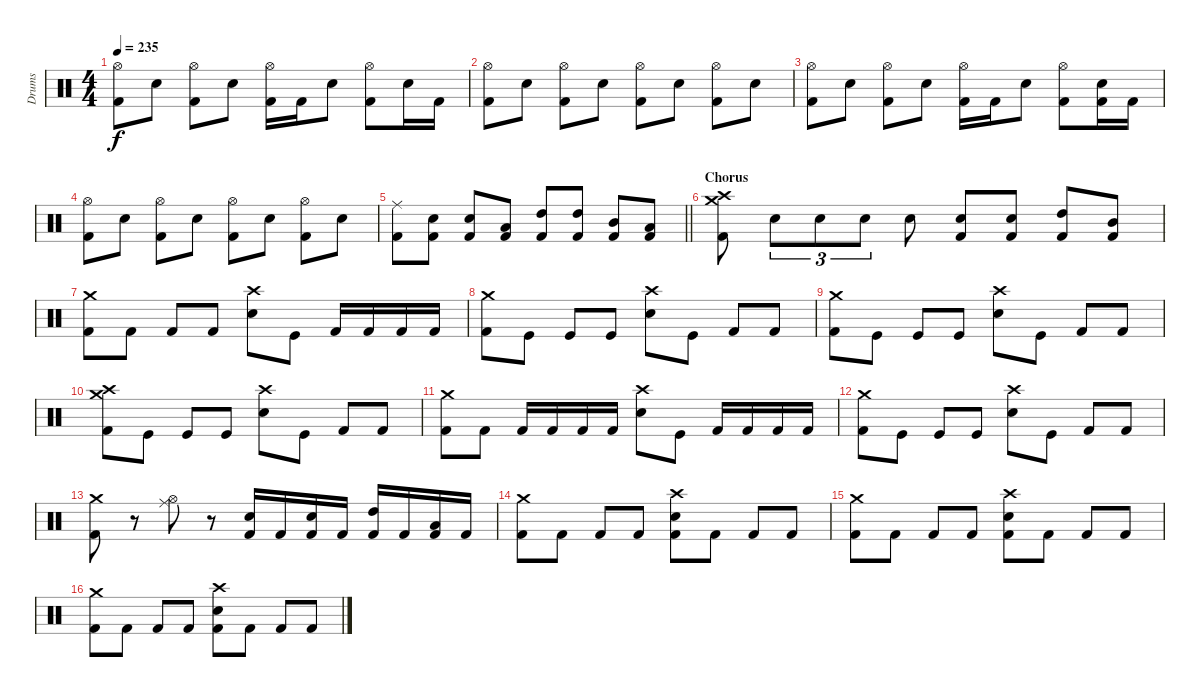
\track ("Drums" "Drums") {instrument percussion}
\staff {score}
\articulation defaults
\ts (4 4)
\tempo 235
\clef neutral
\ks c
("Hi-Hat (open)" "Kick (hit) 2").8{dy f} "Snare (hit) 2".8 ("Hi-Hat (open)" "Kick (hit) 2").8 "Snare (hit) 2".8 ("Hi-Hat (open)" "Kick (hit) 2").16 "Kick (hit) 2".16 "Snare (hit) 2".8 ("Hi-Hat (open)" "Kick (hit) 2").8 "Snare (hit) 2".16 "Kick (hit) 2".16 |
("Hi-Hat (open)" "Kick (hit) 2").8 "Snare (hit) 2".8 ("Hi-Hat (open)" "Kick (hit) 2").8 "Snare (hit) 2".8 ("Hi-Hat (open)" "Kick (hit) 2").8 "Snare (hit) 2".8 ("Hi-Hat (open)" "Kick (hit) 2").8 "Snare (hit) 2".8 |
("Hi-Hat (open)" "Kick (hit) 2").8 "Snare (hit) 2".8 ("Hi-Hat (open)" "Kick (hit) 2").8 "Snare (hit) 2".8 ("Hi-Hat (open)" "Kick (hit) 2").16 "Kick (hit) 2".16 "Snare (hit) 2".8 ("Hi-Hat (open)" "Kick (hit) 2").8 ("Snare (hit) 2" "Kick (hit) 2").16 "Kick (hit) 2".16 |
("Hi-Hat (open)" "Kick (hit) 2").8 "Snare (hit) 2".8 ("Hi-Hat (open)" "Kick (hit) 2").8 "Snare (hit) 2".8 ("Hi-Hat (open)" "Kick (hit) 2").8 "Snare (hit) 2".8 ("Hi-Hat (open)" "Kick (hit) 2").8 "Snare (hit) 2".8 |
\barLineRight lightlight
("Ride (middle)" "Kick (hit) 2").8 ("Snare (hit) 2" "Kick (hit) 2").8 ("Snare (hit) 2" "Kick (hit) 2").8 ("Low Tom (hit)" "Kick (hit) 2").8 ("High Tom (hit)" "Kick (hit) 2").8 ("High Tom (hit)" "Kick (hit) 2").8 ("Mid Tom (hit)" "Kick (hit) 2").8 ("Low Tom (hit)" "Kick (hit) 2").8 |
\section ("" "Chorus")
("Crash medium (hit)" "Crash high (hit)" "Kick (hit) 2").8 "Snare (hit) 2".8{tu (3 2)} "Snare (hit) 2".8{tu (3 2)} "Snare (hit) 2".8{tu (3 2)} "Snare (hit) 2".8 ("Snare (hit) 2" "Kick (hit) 2").8 ("Snare (hit) 2" "Kick (hit) 2").8 ("High Tom (hit)" "Kick (hit) 2").8 ("Mid Tom (hit)" "Kick (hit) 2").8 |
("Crash medium (hit)" "Kick (hit) 2").8 "Kick (hit) 2".8 "Kick (hit) 2".8 "Kick (hit) 2".8 ("Crash high (hit)" "Snare (hit) 2").8 "Kick (hit)".8 "Kick (hit) 2".16 "Kick (hit) 2".16 "Kick (hit) 2".16 "Kick (hit) 2".16 |
("Crash medium (hit)" "Kick (hit) 2").8 "Kick (hit)".8 "Kick (hit)".8 "Kick (hit)".8 ("Crash high (hit)" "Snare (hit) 2").8 "Kick (hit)".8 "Kick (hit) 2".8 "Kick (hit) 2".8 |
("Crash medium (hit)" "Kick (hit) 2").8 "Kick (hit)".8 "Kick (hit)".8 "Kick (hit)".8 ("Crash high (hit)" "Snare (hit) 2").8 "Kick (hit)".8 "Kick (hit) 2".8 "Kick (hit) 2".8 |
("Crash medium (hit)" "Crash high (hit)" "Kick (hit) 2").8 "Kick (hit)".8 "Kick (hit)".8 "Kick (hit)".8 ("Crash high (hit)" "Snare (hit) 2").8 "Kick (hit)".8 "Kick (hit) 2".8 "Kick (hit) 2".8 |
("Crash medium (hit)" "Kick (hit) 2").8 "Kick (hit) 2".8 "Kick (hit) 2".16 "Kick (hit) 2".16 "Kick (hit) 2".16 "Kick (hit) 2".16 ("Crash high (hit)" "Snare (hit) 2").8 "Kick (hit)".8 "Kick (hit) 2".16 "Kick (hit) 2".16 "Kick (hit) 2".16 "Kick (hit) 2".16 |
("Crash medium (hit)" "Kick (hit) 2").8 "Kick (hit)".8 "Kick (hit)".8 "Kick (hit)".8 ("Crash high (hit)" "Snare (hit) 2").8 "Kick (hit)".8 "Kick (hit) 2".8 "Kick (hit) 2".8 |
("Crash medium (hit)" "Kick (hit) 2").8 r.8 ("Ride (middle)" "Hi-Hat (open)").8 r.8 ("Snare (hit) 2" "Kick (hit) 2").16 "Kick (hit) 2".16 ("Snare (hit) 2" "Kick (hit) 2").16 "Kick (hit) 2".16 ("High Tom (hit)" "Kick (hit) 2").16 "Kick (hit) 2".16 ("Low Tom (hit)" "Kick (hit) 2").16 "Kick (hit) 2".16 |
("Crash medium (hit)" "Kick (hit) 2").8 "Kick (hit) 2".8 "Kick (hit) 2".8 "Kick (hit) 2".8 ("Crash high (hit)" "Snare (hit) 2" "Kick (hit) 2").8 "Kick (hit) 2".8 "Kick (hit) 2".8 "Kick (hit) 2".8 |
("Crash medium (hit)" "Kick (hit) 2").8 "Kick (hit) 2".8 "Kick (hit) 2".8 "Kick (hit) 2".8 ("Crash high (hit)" "Snare (hit) 2" "Kick (hit) 2").8 "Kick (hit) 2".8 "Kick (hit) 2".8 "Kick (hit) 2".8 |
("Crash medium (hit)" "Kick (hit) 2").8 "Kick (hit) 2".8 "Kick (hit) 2".8 "Kick (hit) 2".8 ("Crash high (hit)" "Snare (hit) 2" "Kick (hit) 2").8 "Kick (hit) 2".8 "Kick (hit) 2".8 "Kick (hit) 2".8
